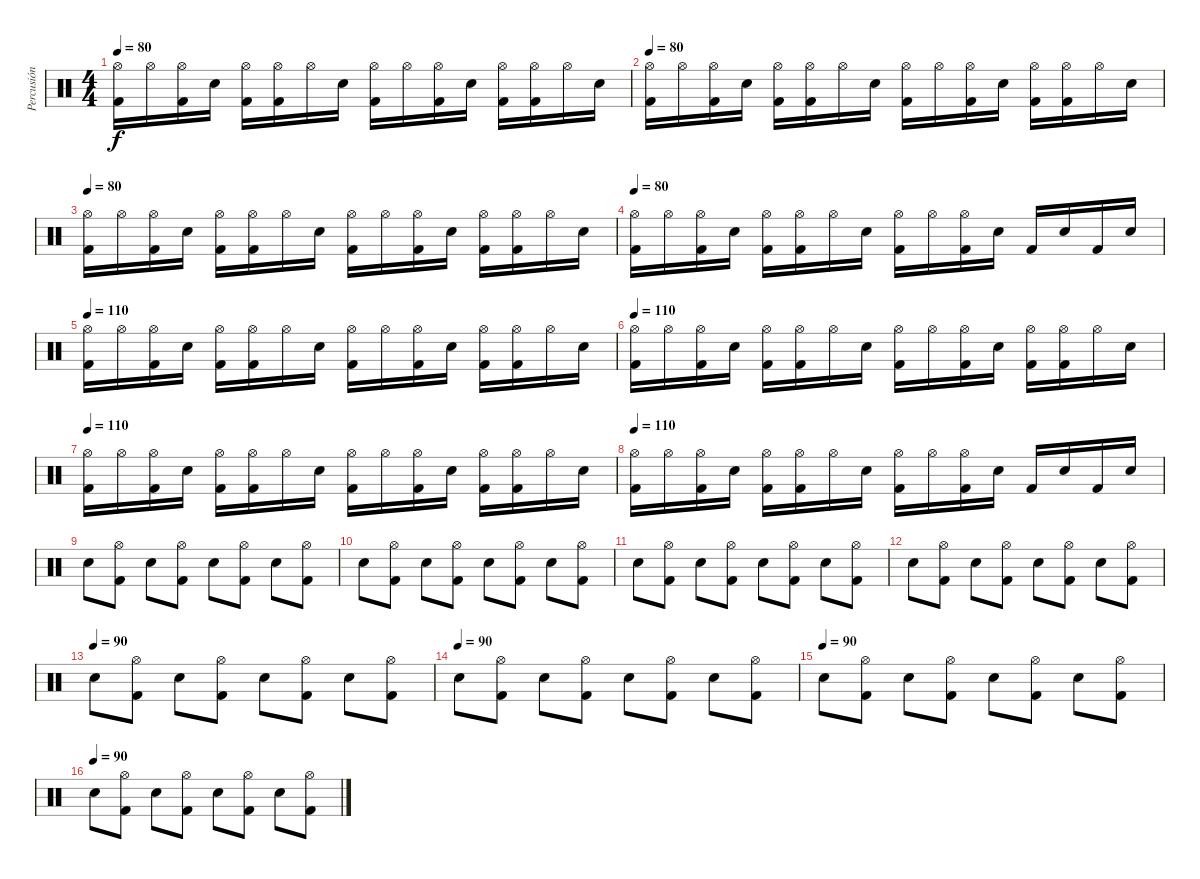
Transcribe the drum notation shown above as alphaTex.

\track ("Percusión" "Percusión") {instrument percussion}
\staff {score}
\articulation defaults
\ts (4 4)
\tempo 80
\clef neutral
\ks c
("Hi-Hat (open)" "Kick (hit) 2").16{dy f} "Hi-Hat (open)".16 ("Hi-Hat (open)" "Kick (hit) 2").16 "Electric Snare (hit)".16 ("Hi-Hat (open)" "Kick (hit) 2").16 ("Hi-Hat (open)" "Kick (hit) 2").16 "Hi-Hat (open)".16 "Electric Snare (hit)".16 ("Hi-Hat (open)" "Kick (hit) 2").16 "Hi-Hat (open)".16 ("Hi-Hat (open)" "Kick (hit) 2").16 "Electric Snare (hit)".16 ("Hi-Hat (open)" "Kick (hit) 2").16 ("Hi-Hat (open)" "Kick (hit) 2").16 "Hi-Hat (open)".16 "Electric Snare (hit)".16 |
\tempo 80
("Hi-Hat (open)" "Kick (hit) 2").16 "Hi-Hat (open)".16 ("Hi-Hat (open)" "Kick (hit) 2").16 "Electric Snare (hit)".16 ("Hi-Hat (open)" "Kick (hit) 2").16 ("Hi-Hat (open)" "Kick (hit) 2").16 "Hi-Hat (open)".16 "Electric Snare (hit)".16 ("Hi-Hat (open)" "Kick (hit) 2").16 "Hi-Hat (open)".16 ("Hi-Hat (open)" "Kick (hit) 2").16 "Electric Snare (hit)".16 ("Hi-Hat (open)" "Kick (hit) 2").16 ("Hi-Hat (open)" "Kick (hit) 2").16 "Hi-Hat (open)".16 "Electric Snare (hit)".16 |
\tempo 80
("Hi-Hat (open)" "Kick (hit) 2").16 "Hi-Hat (open)".16 ("Hi-Hat (open)" "Kick (hit) 2").16 "Electric Snare (hit)".16 ("Hi-Hat (open)" "Kick (hit) 2").16 ("Hi-Hat (open)" "Kick (hit) 2").16 "Hi-Hat (open)".16 "Electric Snare (hit)".16 ("Hi-Hat (open)" "Kick (hit) 2").16 "Hi-Hat (open)".16 ("Hi-Hat (open)" "Kick (hit) 2").16 "Electric Snare (hit)".16 ("Hi-Hat (open)" "Kick (hit) 2").16 ("Hi-Hat (open)" "Kick (hit) 2").16 "Hi-Hat (open)".16 "Electric Snare (hit)".16 |
\tempo 80
("Hi-Hat (open)" "Kick (hit) 2").16 "Hi-Hat (open)".16 ("Hi-Hat (open)" "Kick (hit) 2").16 "Electric Snare (hit)".16 ("Hi-Hat (open)" "Kick (hit) 2").16 ("Hi-Hat (open)" "Kick (hit) 2").16 "Hi-Hat (open)".16 "Electric Snare (hit)".16 ("Hi-Hat (open)" "Kick (hit) 2").16 "Hi-Hat (open)".16 ("Hi-Hat (open)" "Kick (hit) 2").16 "Electric Snare (hit)".16 "Kick (hit) 2".16 "Electric Snare (hit)".16 "Kick (hit) 2".16 "Electric Snare (hit)".16 |
\tempo 110
("Hi-Hat (open)" "Kick (hit) 2").16 "Hi-Hat (open)".16 ("Hi-Hat (open)" "Kick (hit) 2").16 "Electric Snare (hit)".16 ("Hi-Hat (open)" "Kick (hit) 2").16 ("Hi-Hat (open)" "Kick (hit) 2").16 "Hi-Hat (open)".16 "Electric Snare (hit)".16 ("Hi-Hat (open)" "Kick (hit) 2").16 "Hi-Hat (open)".16 ("Hi-Hat (open)" "Kick (hit) 2").16 "Electric Snare (hit)".16 ("Hi-Hat (open)" "Kick (hit) 2").16 ("Hi-Hat (open)" "Kick (hit) 2").16 "Hi-Hat (open)".16 "Electric Snare (hit)".16 |
\tempo 110
("Hi-Hat (open)" "Kick (hit) 2").16 "Hi-Hat (open)".16 ("Hi-Hat (open)" "Kick (hit) 2").16 "Electric Snare (hit)".16 ("Hi-Hat (open)" "Kick (hit) 2").16 ("Hi-Hat (open)" "Kick (hit) 2").16 "Hi-Hat (open)".16 "Electric Snare (hit)".16 ("Hi-Hat (open)" "Kick (hit) 2").16 "Hi-Hat (open)".16 ("Hi-Hat (open)" "Kick (hit) 2").16 "Electric Snare (hit)".16 ("Hi-Hat (open)" "Kick (hit) 2").16 ("Hi-Hat (open)" "Kick (hit) 2").16 "Hi-Hat (open)".16 "Electric Snare (hit)".16 |
\tempo 110
("Hi-Hat (open)" "Kick (hit) 2").16 "Hi-Hat (open)".16 ("Hi-Hat (open)" "Kick (hit) 2").16 "Electric Snare (hit)".16 ("Hi-Hat (open)" "Kick (hit) 2").16 ("Hi-Hat (open)" "Kick (hit) 2").16 "Hi-Hat (open)".16 "Electric Snare (hit)".16 ("Hi-Hat (open)" "Kick (hit) 2").16 "Hi-Hat (open)".16 ("Hi-Hat (open)" "Kick (hit) 2").16 "Electric Snare (hit)".16 ("Hi-Hat (open)" "Kick (hit) 2").16 ("Hi-Hat (open)" "Kick (hit) 2").16 "Hi-Hat (open)".16 "Electric Snare (hit)".16 |
\tempo 110
("Hi-Hat (open)" "Kick (hit) 2").16 "Hi-Hat (open)".16 ("Hi-Hat (open)" "Kick (hit) 2").16 "Electric Snare (hit)".16 ("Hi-Hat (open)" "Kick (hit) 2").16 ("Hi-Hat (open)" "Kick (hit) 2").16 "Hi-Hat (open)".16 "Electric Snare (hit)".16 ("Hi-Hat (open)" "Kick (hit) 2").16 "Hi-Hat (open)".16 ("Hi-Hat (open)" "Kick (hit) 2").16 "Electric Snare (hit)".16 "Kick (hit) 2".16 "Electric Snare (hit)".16 "Kick (hit) 2".16 "Electric Snare (hit)".16 |
"Electric Snare (hit)".8 ("Hi-Hat (open)" "Kick (hit) 2").8 "Electric Snare (hit)".8 ("Hi-Hat (open)" "Kick (hit) 2").8 "Electric Snare (hit)".8 ("Hi-Hat (open)" "Kick (hit) 2").8 "Electric Snare (hit)".8 ("Hi-Hat (open)" "Kick (hit) 2").8 |
"Electric Snare (hit)".8 ("Hi-Hat (open)" "Kick (hit) 2").8 "Electric Snare (hit)".8 ("Hi-Hat (open)" "Kick (hit) 2").8 "Electric Snare (hit)".8 ("Hi-Hat (open)" "Kick (hit) 2").8 "Electric Snare (hit)".8 ("Hi-Hat (open)" "Kick (hit) 2").8 |
"Electric Snare (hit)".8 ("Hi-Hat (open)" "Kick (hit) 2").8 "Electric Snare (hit)".8 ("Hi-Hat (open)" "Kick (hit) 2").8 "Electric Snare (hit)".8 ("Hi-Hat (open)" "Kick (hit) 2").8 "Electric Snare (hit)".8 ("Hi-Hat (open)" "Kick (hit) 2").8 |
"Electric Snare (hit)".8 ("Hi-Hat (open)" "Kick (hit) 2").8 "Electric Snare (hit)".8 ("Hi-Hat (open)" "Kick (hit) 2").8 "Electric Snare (hit)".8 ("Hi-Hat (open)" "Kick (hit) 2").8 "Electric Snare (hit)".8 ("Hi-Hat (open)" "Kick (hit) 2").8 |
\tempo (90)
"Electric Snare (hit)".8 ("Hi-Hat (open)" "Kick (hit) 2").8 "Electric Snare (hit)".8 ("Hi-Hat (open)" "Kick (hit) 2").8 "Electric Snare (hit)".8 ("Hi-Hat (open)" "Kick (hit) 2").8 "Electric Snare (hit)".8 ("Hi-Hat (open)" "Kick (hit) 2").8 |
\tempo (90)
"Electric Snare (hit)".8 ("Hi-Hat (open)" "Kick (hit) 2").8 "Electric Snare (hit)".8 ("Hi-Hat (open)" "Kick (hit) 2").8 "Electric Snare (hit)".8 ("Hi-Hat (open)" "Kick (hit) 2").8 "Electric Snare (hit)".8 ("Hi-Hat (open)" "Kick (hit) 2").8 |
\tempo (90)
"Electric Snare (hit)".8 ("Hi-Hat (open)" "Kick (hit) 2").8 "Electric Snare (hit)".8 ("Hi-Hat (open)" "Kick (hit) 2").8 "Electric Snare (hit)".8 ("Hi-Hat (open)" "Kick (hit) 2").8 "Electric Snare (hit)".8 ("Hi-Hat (open)" "Kick (hit) 2").8 |
\tempo (90)
"Electric Snare (hit)".8 ("Hi-Hat (open)" "Kick (hit) 2").8 "Electric Snare (hit)".8 ("Hi-Hat (open)" "Kick (hit) 2").8 "Electric Snare (hit)".8 ("Hi-Hat (open)" "Kick (hit) 2").8 "Electric Snare (hit)".8 ("Hi-Hat (open)" "Kick (hit) 2").8
